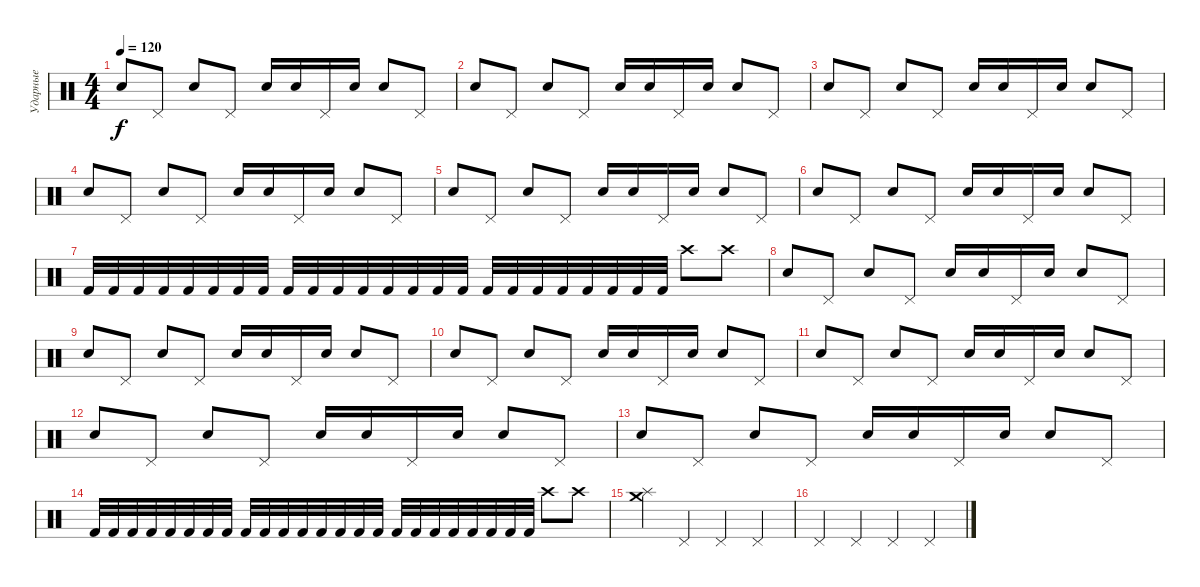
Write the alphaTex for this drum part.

\track ("Ударные" "Ударные") {instrument percussion}
\staff {score}
\articulation defaults
\ts (4 4)
\tempo 120
\clef neutral
\ks c "Snare (hit) 2".8{dy f} "Pedal Hi-Hat (hit)".8 "Snare (hit) 2".8 "Pedal Hi-Hat (hit)".8 "Snare (hit) 2".16 "Snare (hit) 2".16 "Pedal Hi-Hat (hit)".16 "Snare (hit) 2".16 "Snare (hit) 2".8 "Pedal Hi-Hat (hit)".8
|
"Snare (hit) 2".8 "Pedal Hi-Hat (hit)".8 "Snare (hit) 2".8 "Pedal Hi-Hat (hit)".8 "Snare (hit) 2".16 "Snare (hit) 2".16 "Pedal Hi-Hat (hit)".16 "Snare (hit) 2".16 "Snare (hit) 2".8 "Pedal Hi-Hat (hit)".8 |
"Snare (hit) 2".8 "Pedal Hi-Hat (hit)".8 "Snare (hit) 2".8 "Pedal Hi-Hat (hit)".8 "Snare (hit) 2".16 "Snare (hit) 2".16 "Pedal Hi-Hat (hit)".16 "Snare (hit) 2".16 "Snare (hit) 2".8 "Pedal Hi-Hat (hit)".8 |
"Snare (hit) 2".8 "Pedal Hi-Hat (hit)".8 "Snare (hit) 2".8 "Pedal Hi-Hat (hit)".8 "Snare (hit) 2".16 "Snare (hit) 2".16 "Pedal Hi-Hat (hit)".16 "Snare (hit) 2".16 "Snare (hit) 2".8 "Pedal Hi-Hat (hit)".8 |
"Snare (hit) 2".8 "Pedal Hi-Hat (hit)".8 "Snare (hit) 2".8 "Pedal Hi-Hat (hit)".8 "Snare (hit) 2".16 "Snare (hit) 2".16 "Pedal Hi-Hat (hit)".16 "Snare (hit) 2".16 "Snare (hit) 2".8 "Pedal Hi-Hat (hit)".8 |
"Snare (hit) 2".8 "Pedal Hi-Hat (hit)".8 "Snare (hit) 2".8 "Pedal Hi-Hat (hit)".8 "Snare (hit) 2".16 "Snare (hit) 2".16 "Pedal Hi-Hat (hit)".16 "Snare (hit) 2".16 "Snare (hit) 2".8 "Pedal Hi-Hat (hit)".8 |
"Kick (hit) 2".32 "Kick (hit) 2".32 "Kick (hit) 2".32 "Kick (hit) 2".32 "Kick (hit) 2".32 "Kick (hit) 2".32 "Kick (hit) 2".32 "Kick (hit) 2".32 "Kick (hit) 2".32 "Kick (hit) 2".32 "Kick (hit) 2".32 "Kick (hit) 2".32 "Kick (hit) 2".32 "Kick (hit) 2".32 "Kick (hit) 2".32 "Kick (hit) 2".32 "Kick (hit) 2".32 "Kick (hit) 2".32 "Kick (hit) 2".32 "Kick (hit) 2".32 "Kick (hit) 2".32 "Kick (hit) 2".32 "Kick (hit) 2".32 "Kick (hit) 2".32 "Crash high (hit)".8 "Crash high (hit)".8 |
"Snare (hit) 2".8 "Pedal Hi-Hat (hit)".8 "Snare (hit) 2".8 "Pedal Hi-Hat (hit)".8 "Snare (hit) 2".16 "Snare (hit) 2".16 "Pedal Hi-Hat (hit)".16 "Snare (hit) 2".16 "Snare (hit) 2".8 "Pedal Hi-Hat (hit)".8 |
"Snare (hit) 2".8 "Pedal Hi-Hat (hit)".8 "Snare (hit) 2".8 "Pedal Hi-Hat (hit)".8 "Snare (hit) 2".16 "Snare (hit) 2".16 "Pedal Hi-Hat (hit)".16 "Snare (hit) 2".16 "Snare (hit) 2".8 "Pedal Hi-Hat (hit)".8 |
"Snare (hit) 2".8 "Pedal Hi-Hat (hit)".8 "Snare (hit) 2".8 "Pedal Hi-Hat (hit)".8 "Snare (hit) 2".16 "Snare (hit) 2".16 "Pedal Hi-Hat (hit)".16 "Snare (hit) 2".16 "Snare (hit) 2".8 "Pedal Hi-Hat (hit)".8 |
"Snare (hit) 2".8 "Pedal Hi-Hat (hit)".8 "Snare (hit) 2".8 "Pedal Hi-Hat (hit)".8 "Snare (hit) 2".16 "Snare (hit) 2".16 "Pedal Hi-Hat (hit)".16 "Snare (hit) 2".16 "Snare (hit) 2".8 "Pedal Hi-Hat (hit)".8 |
"Snare (hit) 2".8 "Pedal Hi-Hat (hit)".8 "Snare (hit) 2".8 "Pedal Hi-Hat (hit)".8 "Snare (hit) 2".16 "Snare (hit) 2".16 "Pedal Hi-Hat (hit)".16 "Snare (hit) 2".16 "Snare (hit) 2".8 "Pedal Hi-Hat (hit)".8 |
"Snare (hit) 2".8 "Pedal Hi-Hat (hit)".8 "Snare (hit) 2".8 "Pedal Hi-Hat (hit)".8 "Snare (hit) 2".16 "Snare (hit) 2".16 "Pedal Hi-Hat (hit)".16 "Snare (hit) 2".16 "Snare (hit) 2".8 "Pedal Hi-Hat (hit)".8 |
"Kick (hit) 2".32 "Kick (hit) 2".32 "Kick (hit) 2".32 "Kick (hit) 2".32 "Kick (hit) 2".32 "Kick (hit) 2".32 "Kick (hit) 2".32 "Kick (hit) 2".32 "Kick (hit) 2".32 "Kick (hit) 2".32 "Kick (hit) 2".32 "Kick (hit) 2".32 "Kick (hit) 2".32 "Kick (hit) 2".32 "Kick (hit) 2".32 "Kick (hit) 2".32 "Kick (hit) 2".32 "Kick (hit) 2".32 "Kick (hit) 2".32 "Kick (hit) 2".32 "Kick (hit) 2".32 "Kick (hit) 2".32 "Kick (hit) 2".32 "Kick (hit) 2".32 "Crash high (hit)".8 "Crash high (hit)".8 |
("Splash (hit)" "Crash medium (hit)").4 "Pedal Hi-Hat (hit)".4 "Pedal Hi-Hat (hit)".4 "Pedal Hi-Hat (hit)".4 |
"Pedal Hi-Hat (hit)".4 "Pedal Hi-Hat (hit)".4 "Pedal Hi-Hat (hit)".4 "Pedal Hi-Hat (hit)".4
